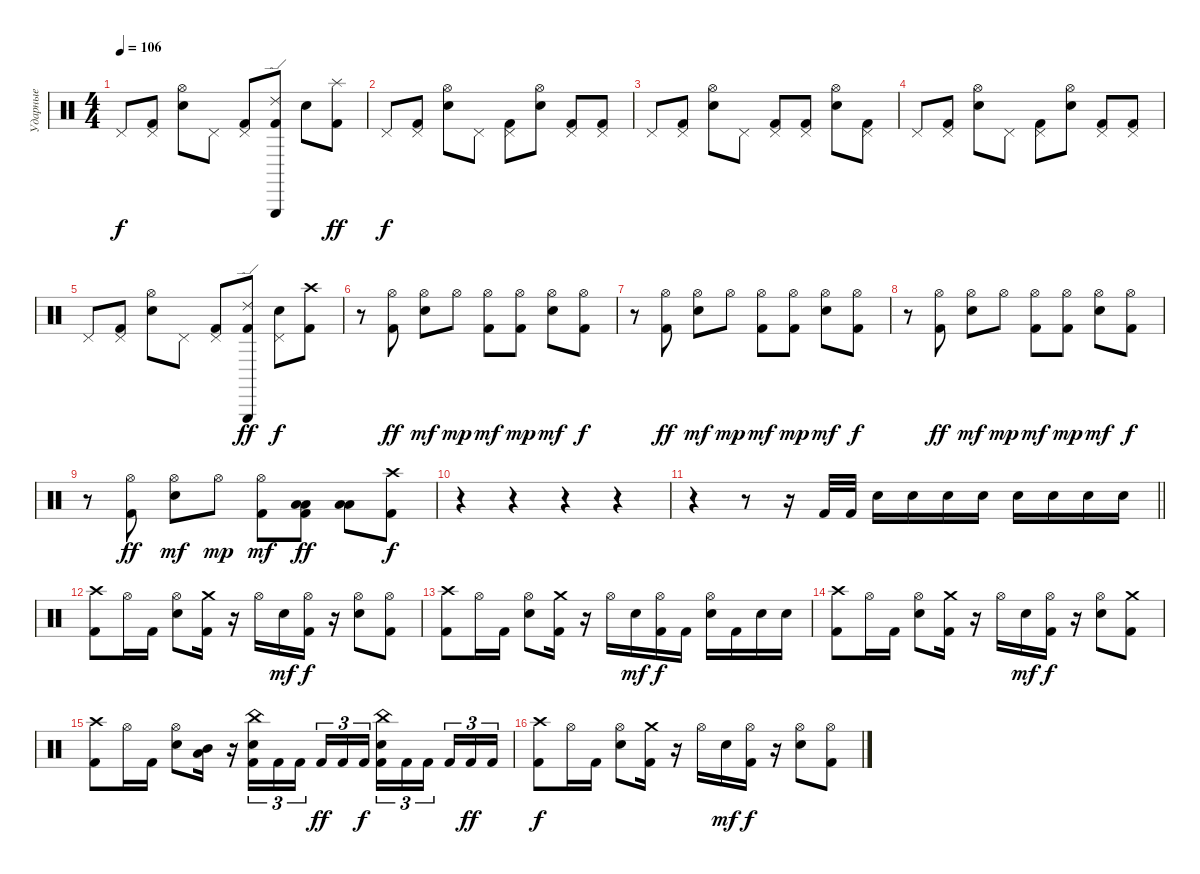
\track ("Ударные" "Ударные") {instrument percussion}
\staff {score}
\articulation defaults
\ts (4 4)
\tempo 106
\clef neutral
\ks c "Pedal Hi-Hat (hit)".8{dy f}
("Pedal Hi-Hat (hit)" "Kick (hit) 2").8 ("Hi-Hat (open)" "Electric Snare (hit)").8 "Pedal Hi-Hat (hit)".8 ("Pedal Hi-Hat (hit)" "Kick (hit) 2").8 ("Triangle (hit)" "Ride (edge) 2" "Kick (hit) 2").8 "Electric Snare (hit)".8 ("Splash (hit)" "Kick (hit) 2").8{dy ff} |
"Pedal Hi-Hat (hit)".8{dy f} ("Pedal Hi-Hat (hit)" "Kick (hit) 2").8 ("Hi-Hat (open)" "Electric Snare (hit)").8 "Pedal Hi-Hat (hit)".8 ("Pedal Hi-Hat (hit)" "Kick (hit) 2").8 ("Hi-Hat (open)" "Electric Snare (hit)").8 ("Pedal Hi-Hat (hit)" "Kick (hit) 2").8 ("Pedal Hi-Hat (hit)" "Kick (hit) 2").8 |
"Pedal Hi-Hat (hit)".8 ("Pedal Hi-Hat (hit)" "Kick (hit) 2").8 ("Hi-Hat (open)" "Electric Snare (hit)").8 "Pedal Hi-Hat (hit)".8 ("Pedal Hi-Hat (hit)" "Kick (hit) 2").8 ("Pedal Hi-Hat (hit)" "Kick (hit) 2").8 ("Hi-Hat (open)" "Electric Snare (hit)").8 ("Pedal Hi-Hat (hit)" "Kick (hit) 2").8 |
"Pedal Hi-Hat (hit)".8 ("Pedal Hi-Hat (hit)" "Kick (hit) 2").8 ("Hi-Hat (open)" "Electric Snare (hit)").8 "Pedal Hi-Hat (hit)".8 ("Pedal Hi-Hat (hit)" "Kick (hit) 2").8 ("Hi-Hat (open)" "Electric Snare (hit)").8 ("Pedal Hi-Hat (hit)" "Kick (hit) 2").8 ("Pedal Hi-Hat (hit)" "Kick (hit) 2").8 |
"Pedal Hi-Hat (hit)".8 ("Pedal Hi-Hat (hit)" "Kick (hit) 2").8 ("Hi-Hat (open)" "Electric Snare (hit)").8 "Pedal Hi-Hat (hit)".8 ("Pedal Hi-Hat (hit)" "Kick (hit) 2").8 ("Triangle (hit)" "Ride (edge) 2" "Kick (hit) 2").8{dy ff} ("Pedal Hi-Hat (hit)" "Electric Snare (hit)").8{dy f} ("Crash high (hit)" "Kick (hit) 2").8 |
r.8 ("Hi-Hat (open)" "Kick (hit) 2").8{dy ff} ("Hi-Hat (open)" "Electric Snare (hit)").8{dy mf} "Hi-Hat (open)".8{dy mp} ("Hi-Hat (open)" "Kick (hit) 2").8{dy mf} ("Hi-Hat (open)" "Kick (hit) 2").8{dy mp} ("Hi-Hat (open)" "Electric Snare (hit)").8{dy mf} ("Hi-Hat (open)" "Kick (hit) 2").8{dy f} |
r.8 ("Hi-Hat (open)" "Kick (hit) 2").8{dy ff} ("Hi-Hat (open)" "Electric Snare (hit)").8{dy mf} "Hi-Hat (open)".8{dy mp} ("Hi-Hat (open)" "Kick (hit) 2").8{dy mf} ("Hi-Hat (open)" "Kick (hit) 2").8{dy mp} ("Hi-Hat (open)" "Electric Snare (hit)").8{dy mf} ("Hi-Hat (open)" "Kick (hit) 2").8{dy f} |
r.8 ("Hi-Hat (open)" "Kick (hit) 2").8{dy ff} ("Hi-Hat (open)" "Electric Snare (hit)").8{dy mf} "Hi-Hat (open)".8{dy mp} ("Hi-Hat (open)" "Kick (hit) 2").8{dy mf} ("Hi-Hat (open)" "Kick (hit) 2").8{dy mp} ("Hi-Hat (open)" "Electric Snare (hit)").8{dy mf} ("Hi-Hat (open)" "Kick (hit) 2").8{dy f} |
r.8 ("Hi-Hat (open)" "Kick (hit) 2").8{dy ff} ("Hi-Hat (open)" "Electric Snare (hit)").8{dy mf} "Hi-Hat (open)".8{dy mp} ("Hi-Hat (open)" "Kick (hit) 2").8{dy mf} ("Low Tom (hit)" "Low Floor Tom (hit)" "Kick (hit) 2").8{dy ff} ("Low Tom (hit)" "Low Floor Tom (hit)").8 ("Crash high (hit)" "Kick (hit) 2").8{dy f} |
r.4 r.4 r.4 r.4 |
\barLineRight lightlight
r.4 r.8 r.16 "Kick (hit) 2".32 "Kick (hit) 2".32 "Electric Snare (hit)".16 "Electric Snare (hit)".16 "Electric Snare (hit)".16 "Electric Snare (hit)".16 "Electric Snare (hit)".16 "Electric Snare (hit)".16 "Electric Snare (hit)".16 "Electric Snare (hit)".16 |
("Crash high (hit)" "Kick (hit) 2").8 "Hi-Hat (open)".16 "Kick (hit) 2".16 ("Hi-Hat (open)" "Electric Snare (hit)").8 ("Crash medium (hit)" "Kick (hit) 2").16 r.16 "Hi-Hat (open)".16 "Electric Snare (hit)".16{dy mf} ("Hi-Hat (open)" "Kick (hit) 2").16{dy f} r.16 ("Hi-Hat (open)" "Electric Snare (hit)").8 ("Hi-Hat (open)" "Kick (hit) 2").8 |
("Crash high (hit)" "Kick (hit) 2").8 "Hi-Hat (open)".16 "Kick (hit) 2".16 ("Hi-Hat (open)" "Electric Snare (hit)").8 ("Crash medium (hit)" "Kick (hit) 2").16 r.16 "Hi-Hat (open)".16 "Electric Snare (hit)".16{dy mf} ("Hi-Hat (open)" "Kick (hit) 2").16{dy f} "Kick (hit) 2".16 ("Hi-Hat (open)" "Electric Snare (hit)").16 "Kick (hit) 2".16 "Electric Snare (hit)".16 "Electric Snare (hit)".16 |
("Crash high (hit)" "Kick (hit) 2").8 "Hi-Hat (open)".16 "Kick (hit) 2".16 ("Hi-Hat (open)" "Electric Snare (hit)").8 ("Crash medium (hit)" "Kick (hit) 2").16 r.16 "Hi-Hat (open)".16 "Electric Snare (hit)".16{dy mf} ("Hi-Hat (open)" "Kick (hit) 2").16{dy f} r.16 ("Hi-Hat (open)" "Electric Snare (hit)").8 ("Crash medium (hit)" "Kick (hit) 2").8 |
("Crash high (hit)" "Kick (hit) 2").8 "Hi-Hat (open)".16 "Kick (hit) 2".16 ("Hi-Hat (open)" "Electric Snare (hit)").8 ("Mid Tom (hit)" "Low Floor Tom (hit)").16 r.16 ("China (hit)" "Electric Snare (hit)" "Kick (hit) 2").16{tu (3 2)} "Kick (hit) 2".16{tu (3 2)} "Kick (hit) 2".16{tu (3 2) beam splitsecondary} "Kick (hit) 2".16{tu (3 2) dy ff} "Kick (hit) 2".16{tu (3 2)} "Kick (hit) 2".16{tu (3 2) dy f} ("China (hit)" "Electric Snare (hit)" "Kick (hit) 2").16{tu (3 2)} "Kick (hit) 2".16{tu (3 2)} "Kick (hit) 2".16{tu (3 2) beam splitsecondary} "Kick (hit) 2".16{tu (3 2)} "Kick (hit) 2".16{tu (3 2) dy ff} "Kick (hit) 2".16{tu (3 2)} |
("Crash high (hit)" "Kick (hit) 2").8{dy f} "Hi-Hat (open)".16 "Kick (hit) 2".16 ("Hi-Hat (open)" "Electric Snare (hit)").8 ("Crash medium (hit)" "Kick (hit) 2").16 r.16 "Hi-Hat (open)".16 "Electric Snare (hit)".16{dy mf} ("Hi-Hat (open)" "Kick (hit) 2").16{dy f} r.16 ("Hi-Hat (open)" "Electric Snare (hit)").8 ("Hi-Hat (open)" "Kick (hit) 2").8
